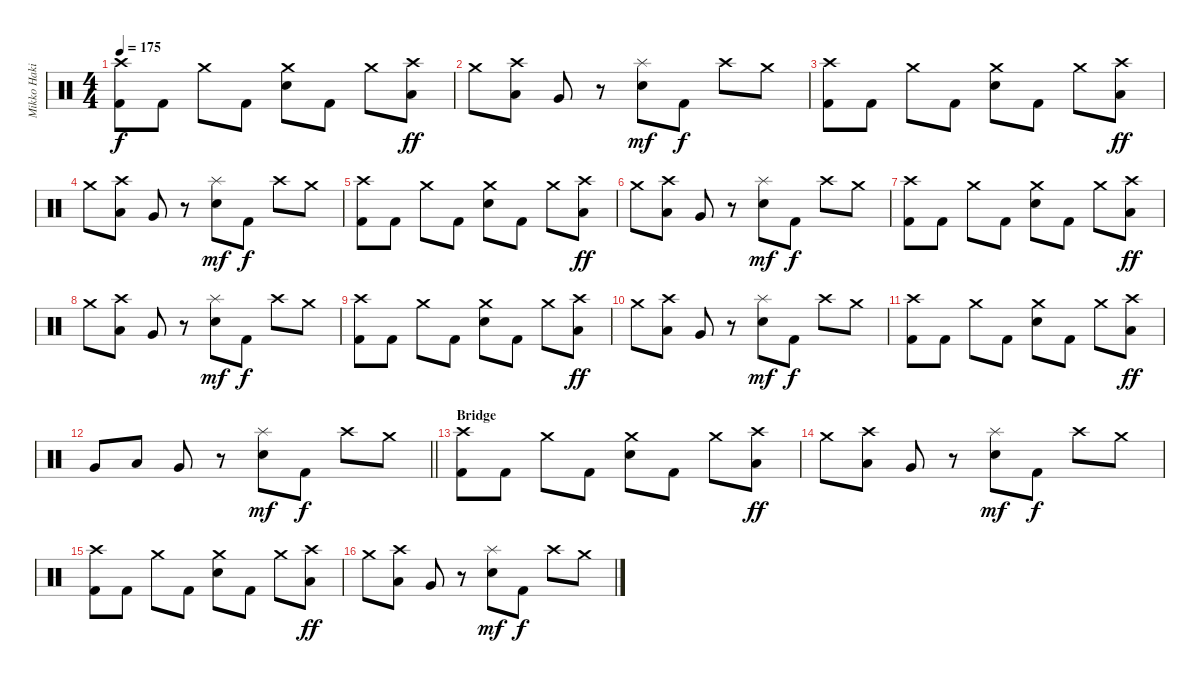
\track ("Mikko Hakila - Drums" "Mikko Haki") {instrument percussion}
\staff {score}
\articulation defaults
\ts (4 4)
\tempo 175
\clef neutral
\ks c
("Crash high (hit)" "Kick (hit) 2").8{dy f} "Kick (hit) 2".8 "Crash medium (hit)".8 "Kick (hit) 2".8 ("Crash medium (hit)" "Electric Snare (hit)").8 "Kick (hit) 2".8 "Crash medium (hit)".8 ("Crash high (hit)" "Low Tom (hit)").8{dy ff} |
"Crash medium (hit)".8 ("Crash high (hit)" "Low Tom (hit)").8 "Very Low Tom (hit)".8 r.8 ("Splash (hit)" "Electric Snare (hit)").8{dy mf} "Kick (hit) 2".8{dy f} "Crash high (hit)".8 "Crash medium (hit)".8 |
("Crash high (hit)" "Kick (hit) 2").8 "Kick (hit) 2".8 "Crash medium (hit)".8 "Kick (hit) 2".8 ("Crash medium (hit)" "Electric Snare (hit)").8 "Kick (hit) 2".8 "Crash medium (hit)".8 ("Crash high (hit)" "Low Tom (hit)").8{dy ff} |
"Crash medium (hit)".8 ("Crash high (hit)" "Low Tom (hit)").8 "Very Low Tom (hit)".8 r.8 ("Splash (hit)" "Electric Snare (hit)").8{dy mf} "Kick (hit) 2".8{dy f} "Crash high (hit)".8 "Crash medium (hit)".8 |
("Crash high (hit)" "Kick (hit) 2").8 "Kick (hit) 2".8 "Crash medium (hit)".8 "Kick (hit) 2".8 ("Crash medium (hit)" "Electric Snare (hit)").8 "Kick (hit) 2".8 "Crash medium (hit)".8 ("Crash high (hit)" "Low Tom (hit)").8{dy ff} |
"Crash medium (hit)".8 ("Crash high (hit)" "Low Tom (hit)").8 "Very Low Tom (hit)".8 r.8 ("Splash (hit)" "Electric Snare (hit)").8{dy mf} "Kick (hit) 2".8{dy f} "Crash high (hit)".8 "Crash medium (hit)".8 |
("Crash high (hit)" "Kick (hit) 2").8 "Kick (hit) 2".8 "Crash medium (hit)".8 "Kick (hit) 2".8 ("Crash medium (hit)" "Electric Snare (hit)").8 "Kick (hit) 2".8 "Crash medium (hit)".8 ("Crash high (hit)" "Low Tom (hit)").8{dy ff} |
"Crash medium (hit)".8 ("Crash high (hit)" "Low Tom (hit)").8 "Very Low Tom (hit)".8 r.8 ("Splash (hit)" "Electric Snare (hit)").8{dy mf} "Kick (hit) 2".8{dy f} "Crash high (hit)".8 "Crash medium (hit)".8 |
("Crash high (hit)" "Kick (hit) 2").8 "Kick (hit) 2".8 "Crash medium (hit)".8 "Kick (hit) 2".8 ("Crash medium (hit)" "Electric Snare (hit)").8 "Kick (hit) 2".8 "Crash medium (hit)".8 ("Crash high (hit)" "Low Tom (hit)").8{dy ff} |
"Crash medium (hit)".8 ("Crash high (hit)" "Low Tom (hit)").8 "Very Low Tom (hit)".8 r.8 ("Splash (hit)" "Electric Snare (hit)").8{dy mf} "Kick (hit) 2".8{dy f} "Crash high (hit)".8 "Crash medium (hit)".8 |
("Crash high (hit)" "Kick (hit) 2").8 "Kick (hit) 2".8 "Crash medium (hit)".8 "Kick (hit) 2".8 ("Crash medium (hit)" "Electric Snare (hit)").8 "Kick (hit) 2".8 "Crash medium (hit)".8 ("Crash high (hit)" "Low Tom (hit)").8{dy ff} |
\barLineRight lightlight "Very Low Tom (hit)".8 "Low Tom (hit)".8 "Very Low Tom (hit)".8
r.8 ("Splash (hit)" "Electric Snare (hit)").8{dy mf} "Kick (hit) 2".8{dy f} "Crash high (hit)".8 "Crash medium (hit)".8 |
\section ("" "Bridge")
("Crash high (hit)" "Kick (hit) 2").8 "Kick (hit) 2".8 "Crash medium (hit)".8 "Kick (hit) 2".8 ("Crash medium (hit)" "Electric Snare (hit)").8 "Kick (hit) 2".8 "Crash medium (hit)".8 ("Crash high (hit)" "Low Tom (hit)").8{dy ff} |
"Crash medium (hit)".8 ("Crash high (hit)" "Low Tom (hit)").8 "Very Low Tom (hit)".8 r.8 ("Splash (hit)" "Electric Snare (hit)").8{dy mf} "Kick (hit) 2".8{dy f} "Crash high (hit)".8 "Crash medium (hit)".8 |
("Crash high (hit)" "Kick (hit) 2").8 "Kick (hit) 2".8 "Crash medium (hit)".8 "Kick (hit) 2".8 ("Crash medium (hit)" "Electric Snare (hit)").8 "Kick (hit) 2".8 "Crash medium (hit)".8 ("Crash high (hit)" "Low Tom (hit)").8{dy ff} |
"Crash medium (hit)".8 ("Crash high (hit)" "Low Tom (hit)").8 "Very Low Tom (hit)".8 r.8 ("Splash (hit)" "Electric Snare (hit)").8{dy mf} "Kick (hit) 2".8{dy f} "Crash high (hit)".8 "Crash medium (hit)".8
